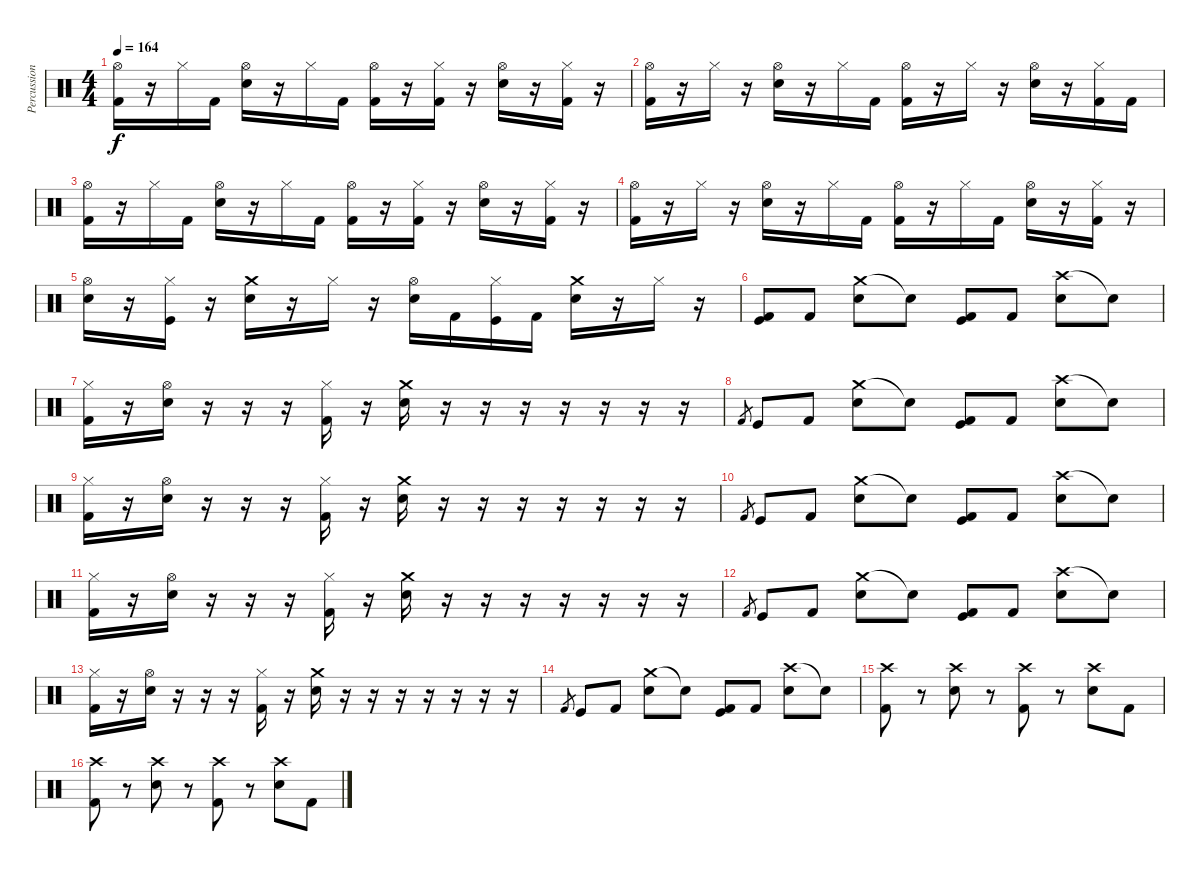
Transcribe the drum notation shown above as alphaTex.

\track ("Percussion" "Percussion") {instrument percussion}
\staff {score}
\articulation defaults
\ts (4 4)
\tempo 164
\clef neutral
\ks c
("Hi-Hat (open)" "Kick (hit) 2").16{dy f} r.16 "Hi-Hat (closed)".16 "Kick (hit) 2".16 ("Hi-Hat (open)" "Electric Snare (hit)").16 r.16 "Hi-Hat (closed)".16 "Kick (hit) 2".16 ("Hi-Hat (open)" "Kick (hit) 2").16 r.16 ("Hi-Hat (closed)" "Kick (hit) 2").16 r.16 ("Hi-Hat (open)" "Electric Snare (hit)").16 r.16 ("Hi-Hat (closed)" "Kick (hit) 2").16 r.16 |
("Hi-Hat (open)" "Kick (hit) 2").16 r.16 "Hi-Hat (closed)".16 r.16 ("Hi-Hat (open)" "Electric Snare (hit)").16 r.16 "Hi-Hat (closed)".16 "Kick (hit) 2".16 ("Hi-Hat (open)" "Kick (hit) 2").16 r.16 "Hi-Hat (closed)".16 r.16 ("Hi-Hat (open)" "Electric Snare (hit)").16 r.16 ("Hi-Hat (closed)" "Kick (hit) 2").16 "Kick (hit) 2".16 |
("Hi-Hat (open)" "Kick (hit) 2").16 r.16 "Hi-Hat (closed)".16 "Kick (hit) 2".16 ("Hi-Hat (open)" "Electric Snare (hit)").16 r.16 "Hi-Hat (closed)".16 "Kick (hit) 2".16 ("Hi-Hat (open)" "Kick (hit) 2").16 r.16 ("Hi-Hat (closed)" "Kick (hit) 2").16 r.16 ("Hi-Hat (open)" "Electric Snare (hit)").16 r.16 ("Hi-Hat (closed)" "Kick (hit) 2").16 r.16 |
("Hi-Hat (open)" "Kick (hit) 2").16 r.16 "Hi-Hat (closed)".16 r.16 ("Hi-Hat (open)" "Electric Snare (hit)").16 r.16 "Hi-Hat (closed)".16 "Kick (hit) 2".16 ("Hi-Hat (open)" "Kick (hit) 2").16 r.16 "Hi-Hat (closed)".16 "Kick (hit) 2".16 ("Hi-Hat (open)" "Electric Snare (hit)").16 r.16 ("Hi-Hat (closed)" "Kick (hit) 2").16 r.16 |
("Hi-Hat (open)" "Snare (hit) 2").16 r.16 ("Hi-Hat (closed)" "Kick (hit)").16 r.16 ("Crash medium (hit)" "Electric Snare (hit)").16 r.16 "Hi-Hat (closed)".16 r.16 ("Hi-Hat (open)" "Snare (hit) 2").16 "Kick (hit) 2".16 ("Hi-Hat (closed)" "Kick (hit)").16 "Kick (hit) 2".16 ("Crash medium (hit)" "Electric Snare (hit)").16 r.16 "Hi-Hat (closed)".16 r.16 |
("Kick (hit)" "Kick (hit) 2").8 "Kick (hit) 2".8 ("Crash medium (hit)" "Electric Snare (hit)").8 "Snare (hit)"{t}.8 ("Kick (hit)" "Kick (hit) 2").8 "Kick (hit) 2".8 ("Crash high (hit)" "Electric Snare (hit)").8 "Snare (hit)"{t}.8 |
("Hi-Hat (closed)" "Kick (hit) 2").16 r.16 ("Hi-Hat (open)" "Electric Snare (hit)").16 r.16 r.16 r.16 ("Hi-Hat (closed)" "Kick (hit) 2").16 r.16 ("Crash medium (hit)" "Electric Snare (hit)").16 r.16 r.16 r.16 r.16 r.16 r.16 r.16 |
"Kick (hit) 2".8{gr} "Kick (hit)".8 "Kick (hit) 2".8 ("Crash medium (hit)" "Electric Snare (hit)").8 "Snare (hit)"{t}.8 ("Kick (hit)" "Kick (hit) 2").8 "Kick (hit) 2".8 ("Crash high (hit)" "Electric Snare (hit)").8 "Snare (hit)"{t}.8 |
("Hi-Hat (closed)" "Kick (hit) 2").16 r.16 ("Hi-Hat (open)" "Electric Snare (hit)").16 r.16 r.16 r.16 ("Hi-Hat (closed)" "Kick (hit) 2").16 r.16 ("Crash medium (hit)" "Electric Snare (hit)").16 r.16 r.16 r.16 r.16 r.16 r.16 r.16 |
"Kick (hit) 2".8{gr} "Kick (hit)".8 "Kick (hit) 2".8 ("Crash medium (hit)" "Electric Snare (hit)").8 "Snare (hit)"{t}.8 ("Kick (hit)" "Kick (hit) 2").8 "Kick (hit) 2".8 ("Crash high (hit)" "Electric Snare (hit)").8 "Snare (hit)"{t}.8 |
("Hi-Hat (closed)" "Kick (hit) 2").16 r.16 ("Hi-Hat (open)" "Electric Snare (hit)").16 r.16 r.16 r.16 ("Hi-Hat (closed)" "Kick (hit) 2").16 r.16 ("Crash medium (hit)" "Electric Snare (hit)").16 r.16 r.16 r.16 r.16 r.16 r.16 r.16 |
"Kick (hit) 2".8{gr} "Kick (hit)".8 "Kick (hit) 2".8 ("Crash medium (hit)" "Electric Snare (hit)").8 "Snare (hit)"{t}.8 ("Kick (hit)" "Kick (hit) 2").8 "Kick (hit) 2".8 ("Crash high (hit)" "Electric Snare (hit)").8 "Snare (hit)"{t}.8 |
("Hi-Hat (closed)" "Kick (hit) 2").16 r.16 ("Hi-Hat (open)" "Electric Snare (hit)").16 r.16 r.16 r.16 ("Hi-Hat (closed)" "Kick (hit) 2").16 r.16 ("Crash medium (hit)" "Electric Snare (hit)").16 r.16 r.16 r.16 r.16 r.16 r.16 r.16 |
"Kick (hit) 2".8{gr} "Kick (hit)".8 "Kick (hit) 2".8 ("Crash medium (hit)" "Electric Snare (hit)").8 "Snare (hit)"{t}.8 ("Kick (hit)" "Kick (hit) 2").8 "Kick (hit) 2".8 ("Crash high (hit)" "Electric Snare (hit)").8 "Snare (hit)"{t}.8 |
("Crash high (hit)" "Kick (hit) 2").8 r.8 ("Crash high (hit)" "Electric Snare (hit)").8 r.8 ("Crash high (hit)" "Kick (hit) 2").8 r.8 ("Crash high (hit)" "Electric Snare (hit)").8 "Kick (hit) 2".8 |
("Crash high (hit)" "Kick (hit) 2").8 r.8 ("Crash high (hit)" "Electric Snare (hit)").8 r.8 ("Crash high (hit)" "Kick (hit) 2").8 r.8 ("Crash high (hit)" "Electric Snare (hit)").8 "Kick (hit) 2".8
